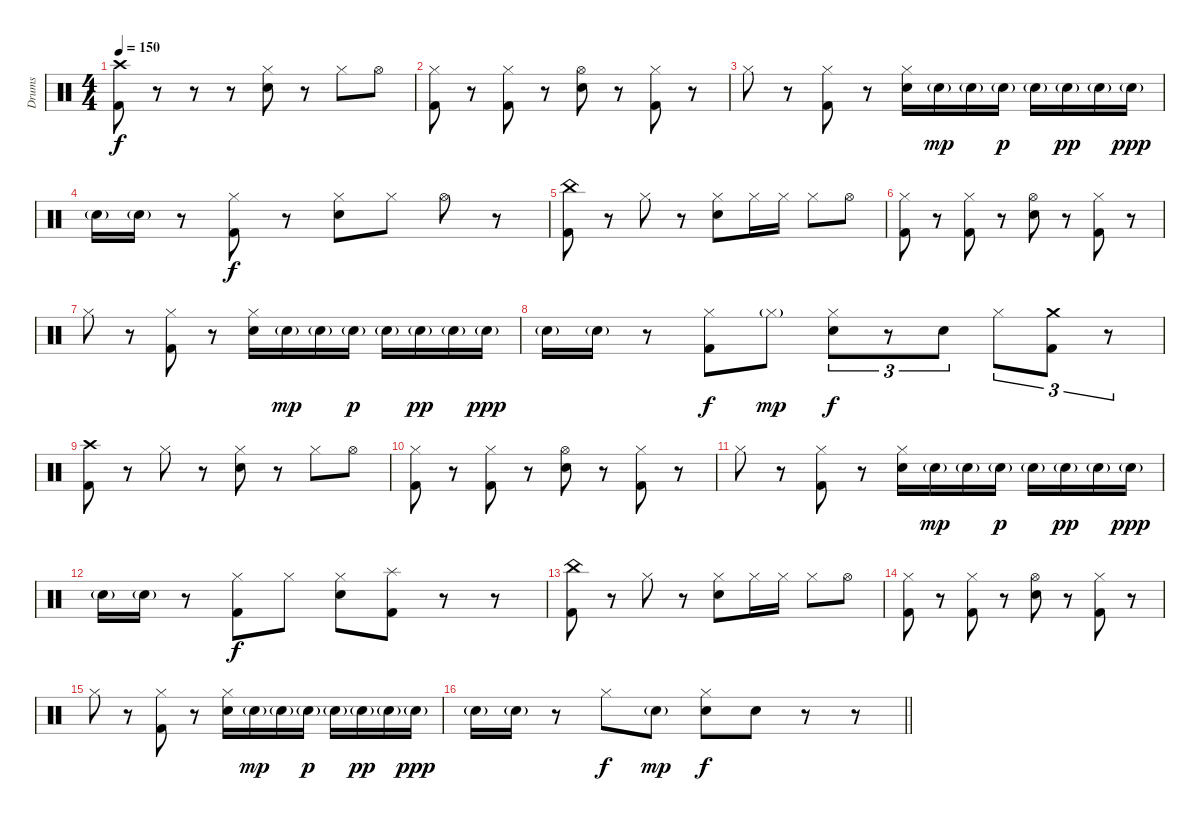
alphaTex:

\track ("Drums" "Drums") {instrument percussion}
\staff {score}
\articulation defaults
\ts (4 4)
\section ("" "")
\tempo 150
\clef neutral
\ks c
("Crash high (hit)" "Kick (hit) 2").8{dy f} r.8 r.8 r.8 ("Hi-Hat (closed)" "Electric Snare (hit)").8 r.8 "Hi-Hat (closed)".8 "Hi-Hat (open)".8 |
("Hi-Hat (closed)" "Kick (hit) 2").8 r.8 ("Hi-Hat (closed)" "Kick (hit) 2").8 r.8 ("Hi-Hat (open)" "Electric Snare (hit)").8 r.8 ("Hi-Hat (closed)" "Kick (hit) 2").8 r.8 |
"Hi-Hat (closed)".8 r.8 ("Hi-Hat (closed)" "Kick (hit) 2").8 r.8 ("Hi-Hat (closed)" "Electric Snare (hit)").16 "Electric Snare (hit)"{g}.16{dy mp} "Electric Snare (hit)"{g}.16 "Electric Snare (hit)"{g}.16{dy p} "Electric Snare (hit)"{g}.16 "Electric Snare (hit)"{g}.16{dy pp} "Electric Snare (hit)"{g}.16 "Electric Snare (hit)"{g}.16{dy ppp} |
"Electric Snare (hit)"{g}.16 "Electric Snare (hit)"{g}.16 r.8 ("Hi-Hat (closed)" "Kick (hit) 2").8{dy f} r.8 ("Hi-Hat (closed)" "Electric Snare (hit)").8 "Hi-Hat (closed)".8 "Hi-Hat (open)".8 r.8 |
("China (hit)" "Kick (hit) 2").8 r.8 "Hi-Hat (closed)".8 r.8 ("Hi-Hat (closed)" "Electric Snare (hit)").8 "Hi-Hat (closed)".16 "Hi-Hat (closed)".16 "Hi-Hat (closed)".8 "Hi-Hat (open)".8 |
("Hi-Hat (closed)" "Kick (hit) 2").8 r.8 ("Hi-Hat (closed)" "Kick (hit) 2").8 r.8 ("Hi-Hat (open)" "Electric Snare (hit)").8 r.8 ("Hi-Hat (closed)" "Kick (hit) 2").8 r.8 |
"Hi-Hat (closed)".8 r.8 ("Hi-Hat (closed)" "Kick (hit) 2").8 r.8 ("Hi-Hat (closed)" "Electric Snare (hit)").16 "Electric Snare (hit)"{g}.16{dy mp} "Electric Snare (hit)"{g}.16 "Electric Snare (hit)"{g}.16{dy p} "Electric Snare (hit)"{g}.16 "Electric Snare (hit)"{g}.16{dy pp} "Electric Snare (hit)"{g}.16 "Electric Snare (hit)"{g}.16{dy ppp} |
"Electric Snare (hit)"{g}.16 "Electric Snare (hit)"{g}.16 r.8 ("Hi-Hat (closed)" "Kick (hit) 2").8{dy f} "Hi-Hat (closed)"{g}.8{dy mp} ("Hi-Hat (closed)" "Electric Snare (hit)").8{tu (3 2) dy f} r.8{tu (3 2)} "Electric Snare (hit)".8{tu (3 2)} "Hi-Hat (closed)".8{tu (3 2)} ("Crash medium (hit)" "Kick (hit) 2").8{tu (3 2)} r.8{tu (3 2)} |
("Crash high (hit)" "Kick (hit) 2").8 r.8 "Hi-Hat (closed)".8 r.8 ("Hi-Hat (closed)" "Electric Snare (hit)").8 r.8 "Hi-Hat (closed)".8 "Hi-Hat (open)".8 |
("Hi-Hat (closed)" "Kick (hit) 2").8 r.8 ("Hi-Hat (closed)" "Kick (hit) 2").8 r.8 ("Hi-Hat (open)" "Electric Snare (hit)").8 r.8 ("Hi-Hat (closed)" "Kick (hit) 2").8 r.8 |
"Hi-Hat (closed)".8 r.8 ("Hi-Hat (closed)" "Kick (hit) 2").8 r.8 ("Hi-Hat (closed)" "Electric Snare (hit)").16 "Electric Snare (hit)"{g}.16{dy mp} "Electric Snare (hit)"{g}.16 "Electric Snare (hit)"{g}.16{dy p} "Electric Snare (hit)"{g}.16 "Electric Snare (hit)"{g}.16{dy pp} "Electric Snare (hit)"{g}.16 "Electric Snare (hit)"{g}.16{dy ppp} |
"Electric Snare (hit)"{g}.16 "Electric Snare (hit)"{g}.16 r.8 ("Hi-Hat (closed)" "Kick (hit) 2").8{dy f} "Hi-Hat (closed)".8 ("Hi-Hat (closed)" "Electric Snare (hit)").8 ("Splash (hit)" "Kick (hit) 2").8 r.8 r.8 |
("China (hit)" "Kick (hit) 2").8 r.8 "Hi-Hat (closed)".8 r.8 ("Hi-Hat (closed)" "Electric Snare (hit)").8 "Hi-Hat (closed)".16 "Hi-Hat (closed)".16 "Hi-Hat (closed)".8 "Hi-Hat (open)".8 |
("Hi-Hat (closed)" "Kick (hit) 2").8 r.8 ("Hi-Hat (closed)" "Kick (hit) 2").8 r.8 ("Hi-Hat (open)" "Electric Snare (hit)").8 r.8 ("Hi-Hat (closed)" "Kick (hit) 2").8 r.8 |
"Hi-Hat (closed)".8 r.8 ("Hi-Hat (closed)" "Kick (hit) 2").8 r.8 ("Hi-Hat (closed)" "Electric Snare (hit)").16 "Electric Snare (hit)"{g}.16{dy mp} "Electric Snare (hit)"{g}.16 "Electric Snare (hit)"{g}.16{dy p} "Electric Snare (hit)"{g}.16 "Electric Snare (hit)"{g}.16{dy pp} "Electric Snare (hit)"{g}.16 "Electric Snare (hit)"{g}.16{dy ppp} |
\barLineRight lightlight "Electric Snare (hit)"{g}.16 "Electric Snare (hit)"{g}.16
r.8 "Hi-Hat (closed)".8{dy f} "Electric Snare (hit)"{g}.8{dy mp} ("Hi-Hat (closed)" "Electric Snare (hit)").8{dy f} "Electric Snare (hit)".8 r.8 r.8
